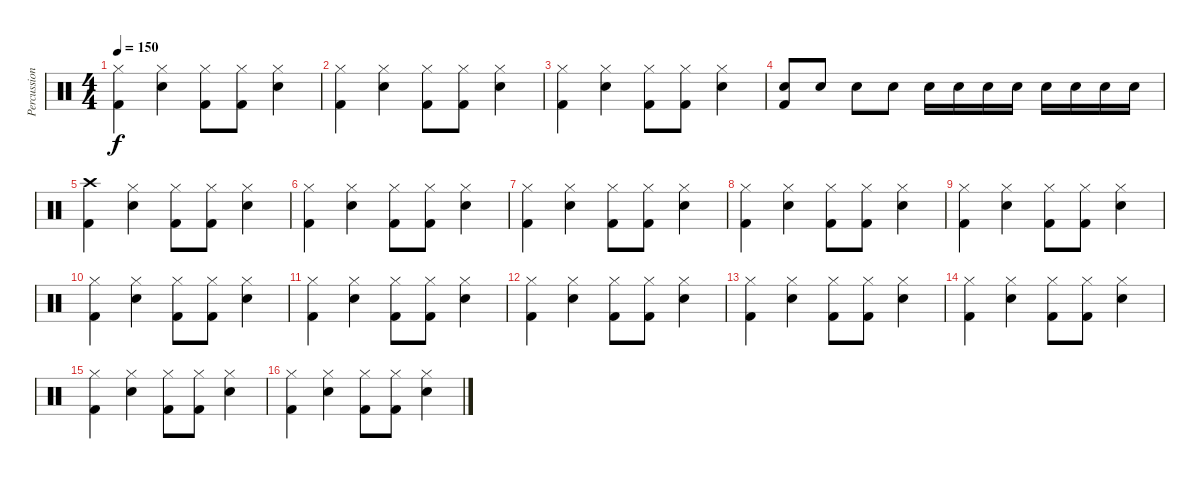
\track ("Percussion" "Percussion") {instrument percussion}
\staff {score}
\articulation defaults
\ts (4 4)
\tempo 150
\clef neutral
\ks c
("Hi-Hat (closed)" "Kick (hit) 2").4{dy f} ("Hi-Hat (closed)" "Electric Snare (hit)").4 ("Hi-Hat (closed)" "Kick (hit) 2").8 ("Hi-Hat (closed)" "Kick (hit) 2").8 ("Hi-Hat (closed)" "Electric Snare (hit)").4 |
("Hi-Hat (closed)" "Kick (hit) 2").4 ("Hi-Hat (closed)" "Electric Snare (hit)").4 ("Hi-Hat (closed)" "Kick (hit) 2").8 ("Hi-Hat (closed)" "Kick (hit) 2").8 ("Hi-Hat (closed)" "Electric Snare (hit)").4 |
("Hi-Hat (closed)" "Kick (hit) 2").4 ("Hi-Hat (closed)" "Electric Snare (hit)").4 ("Hi-Hat (closed)" "Kick (hit) 2").8 ("Hi-Hat (closed)" "Kick (hit) 2").8 ("Hi-Hat (closed)" "Electric Snare (hit)").4 |
("Kick (hit) 2" "Electric Snare (hit)").8 "Electric Snare (hit)".8 "Electric Snare (hit)".8 "Electric Snare (hit)".8 "Electric Snare (hit)".16 "Electric Snare (hit)".16 "Electric Snare (hit)".16 "Electric Snare (hit)".16 "Electric Snare (hit)".16 "Electric Snare (hit)".16 "Electric Snare (hit)".16 "Electric Snare (hit)".16 |
("Crash high (hit)" "Kick (hit) 2").4 ("Hi-Hat (closed)" "Electric Snare (hit)").4 ("Hi-Hat (closed)" "Kick (hit) 2").8 ("Hi-Hat (closed)" "Kick (hit) 2").8 ("Hi-Hat (closed)" "Electric Snare (hit)").4 |
("Hi-Hat (closed)" "Kick (hit) 2").4 ("Hi-Hat (closed)" "Electric Snare (hit)").4 ("Hi-Hat (closed)" "Kick (hit) 2").8 ("Hi-Hat (closed)" "Kick (hit) 2").8 ("Hi-Hat (closed)" "Electric Snare (hit)").4 |
("Hi-Hat (closed)" "Kick (hit) 2").4 ("Hi-Hat (closed)" "Electric Snare (hit)").4 ("Hi-Hat (closed)" "Kick (hit) 2").8 ("Hi-Hat (closed)" "Kick (hit) 2").8 ("Hi-Hat (closed)" "Electric Snare (hit)").4 |
("Hi-Hat (closed)" "Kick (hit) 2").4 ("Hi-Hat (closed)" "Electric Snare (hit)").4 ("Hi-Hat (closed)" "Kick (hit) 2").8 ("Hi-Hat (closed)" "Kick (hit) 2").8 ("Hi-Hat (closed)" "Electric Snare (hit)").4 |
("Hi-Hat (closed)" "Kick (hit) 2").4 ("Hi-Hat (closed)" "Electric Snare (hit)").4 ("Hi-Hat (closed)" "Kick (hit) 2").8 ("Hi-Hat (closed)" "Kick (hit) 2").8 ("Hi-Hat (closed)" "Electric Snare (hit)").4 |
("Hi-Hat (closed)" "Kick (hit) 2").4 ("Hi-Hat (closed)" "Electric Snare (hit)").4 ("Hi-Hat (closed)" "Kick (hit) 2").8 ("Hi-Hat (closed)" "Kick (hit) 2").8 ("Hi-Hat (closed)" "Electric Snare (hit)").4 |
("Hi-Hat (closed)" "Kick (hit) 2").4 ("Hi-Hat (closed)" "Electric Snare (hit)").4 ("Hi-Hat (closed)" "Kick (hit) 2").8 ("Hi-Hat (closed)" "Kick (hit) 2").8 ("Hi-Hat (closed)" "Electric Snare (hit)").4 |
("Hi-Hat (closed)" "Kick (hit) 2").4 ("Hi-Hat (closed)" "Electric Snare (hit)").4 ("Hi-Hat (closed)" "Kick (hit) 2").8 ("Hi-Hat (closed)" "Kick (hit) 2").8 ("Hi-Hat (closed)" "Electric Snare (hit)").4 |
("Hi-Hat (closed)" "Kick (hit) 2").4 ("Hi-Hat (closed)" "Electric Snare (hit)").4 ("Hi-Hat (closed)" "Kick (hit) 2").8 ("Hi-Hat (closed)" "Kick (hit) 2").8 ("Hi-Hat (closed)" "Electric Snare (hit)").4 |
("Hi-Hat (closed)" "Kick (hit) 2").4 ("Hi-Hat (closed)" "Electric Snare (hit)").4 ("Hi-Hat (closed)" "Kick (hit) 2").8 ("Hi-Hat (closed)" "Kick (hit) 2").8 ("Hi-Hat (closed)" "Electric Snare (hit)").4 |
("Hi-Hat (closed)" "Kick (hit) 2").4 ("Hi-Hat (closed)" "Electric Snare (hit)").4 ("Hi-Hat (closed)" "Kick (hit) 2").8 ("Hi-Hat (closed)" "Kick (hit) 2").8 ("Hi-Hat (closed)" "Electric Snare (hit)").4 |
("Hi-Hat (closed)" "Kick (hit) 2").4 ("Hi-Hat (closed)" "Electric Snare (hit)").4 ("Hi-Hat (closed)" "Kick (hit) 2").8 ("Hi-Hat (closed)" "Kick (hit) 2").8 ("Hi-Hat (closed)" "Electric Snare (hit)").4
